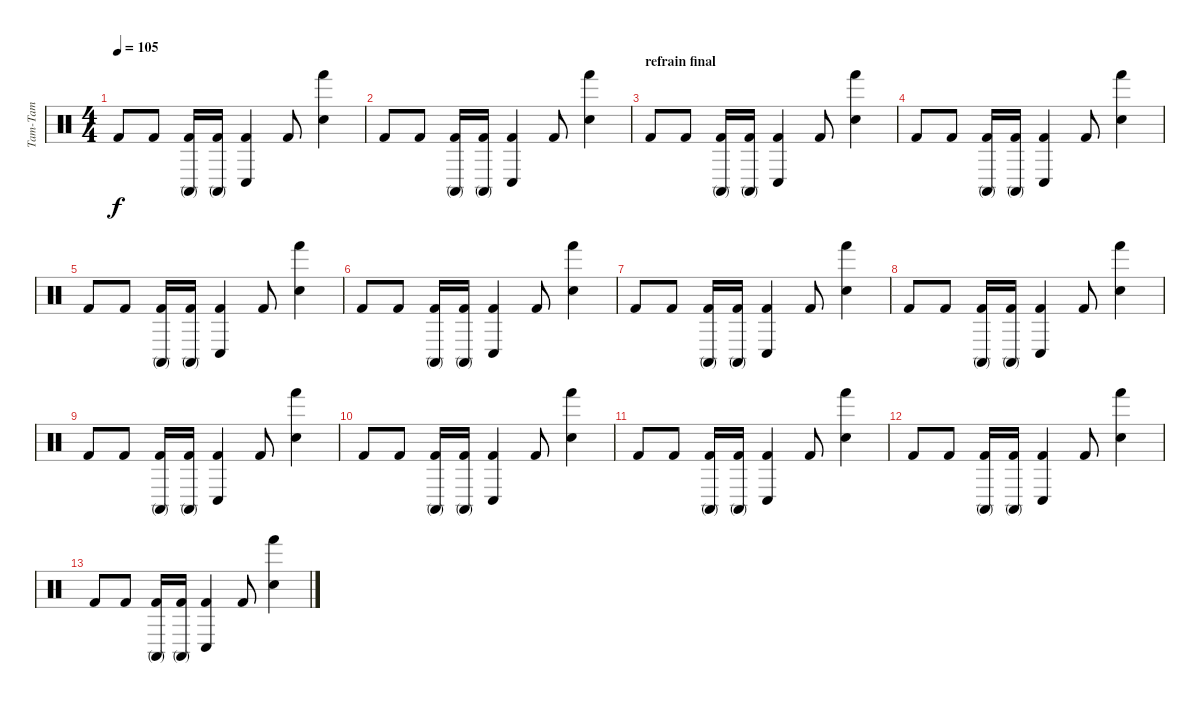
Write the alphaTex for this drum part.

\track ("Tam-Tam" "Tam-Tam") {instrument percussion}
\staff {score}
\articulation defaults
\ts (4 4)
\tempo 105
\clef neutral
\ks c "Kick (hit) 2".8{dy f} "Kick (hit) 2".8
("Conga high (mute)" "Kick (hit) 2").16 ("Conga high (mute)" "Kick (hit) 2").16 ("Conga low (hit)" "Kick (hit) 2").4 "Kick (hit) 2".8 ("Hand (hit)" "Electric Snare (hit)").4 |
"Kick (hit) 2".8 "Kick (hit) 2".8 ("Conga high (mute)" "Kick (hit) 2").16 ("Conga high (mute)" "Kick (hit) 2").16 ("Conga low (hit)" "Kick (hit) 2").4 "Kick (hit) 2".8 ("Hand (hit)" "Electric Snare (hit)").4 |
\section ("" "refrain final")
"Kick (hit) 2".8 "Kick (hit) 2".8 ("Conga high (mute)" "Kick (hit) 2").16 ("Conga high (mute)" "Kick (hit) 2").16 ("Conga low (hit)" "Kick (hit) 2").4 "Kick (hit) 2".8 ("Hand (hit)" "Electric Snare (hit)").4 |
"Kick (hit) 2".8 "Kick (hit) 2".8 ("Conga high (mute)" "Kick (hit) 2").16 ("Conga high (mute)" "Kick (hit) 2").16 ("Conga low (hit)" "Kick (hit) 2").4 "Kick (hit) 2".8 ("Hand (hit)" "Electric Snare (hit)").4 |
"Kick (hit) 2".8 "Kick (hit) 2".8 ("Conga high (mute)" "Kick (hit) 2").16 ("Conga high (mute)" "Kick (hit) 2").16 ("Conga low (hit)" "Kick (hit) 2").4 "Kick (hit) 2".8 ("Hand (hit)" "Electric Snare (hit)").4 |
"Kick (hit) 2".8 "Kick (hit) 2".8 ("Conga high (mute)" "Kick (hit) 2").16 ("Conga high (mute)" "Kick (hit) 2").16 ("Conga low (hit)" "Kick (hit) 2").4 "Kick (hit) 2".8 ("Hand (hit)" "Electric Snare (hit)").4 |
"Kick (hit) 2".8 "Kick (hit) 2".8 ("Conga high (mute)" "Kick (hit) 2").16 ("Conga high (mute)" "Kick (hit) 2").16 ("Conga low (hit)" "Kick (hit) 2").4 "Kick (hit) 2".8 ("Hand (hit)" "Electric Snare (hit)").4 |
"Kick (hit) 2".8 "Kick (hit) 2".8 ("Conga high (mute)" "Kick (hit) 2").16 ("Conga high (mute)" "Kick (hit) 2").16 ("Conga low (hit)" "Kick (hit) 2").4 "Kick (hit) 2".8 ("Hand (hit)" "Electric Snare (hit)").4 |
"Kick (hit) 2".8 "Kick (hit) 2".8 ("Conga high (mute)" "Kick (hit) 2").16 ("Conga high (mute)" "Kick (hit) 2").16 ("Conga low (hit)" "Kick (hit) 2").4 "Kick (hit) 2".8 ("Hand (hit)" "Electric Snare (hit)").4 |
"Kick (hit) 2".8 "Kick (hit) 2".8 ("Conga high (mute)" "Kick (hit) 2").16 ("Conga high (mute)" "Kick (hit) 2").16 ("Conga low (hit)" "Kick (hit) 2").4 "Kick (hit) 2".8 ("Hand (hit)" "Electric Snare (hit)").4 |
"Kick (hit) 2".8 "Kick (hit) 2".8 ("Conga high (mute)" "Kick (hit) 2").16 ("Conga high (mute)" "Kick (hit) 2").16 ("Conga low (hit)" "Kick (hit) 2").4 "Kick (hit) 2".8 ("Hand (hit)" "Electric Snare (hit)").4 |
"Kick (hit) 2".8 "Kick (hit) 2".8 ("Conga high (mute)" "Kick (hit) 2").16 ("Conga high (mute)" "Kick (hit) 2").16 ("Conga low (hit)" "Kick (hit) 2").4 "Kick (hit) 2".8 ("Hand (hit)" "Electric Snare (hit)").4 |
"Kick (hit) 2".8{volume 0} "Kick (hit) 2".8 ("Conga high (mute)" "Kick (hit) 2").16 ("Conga high (mute)" "Kick (hit) 2").16 ("Conga low (hit)" "Kick (hit) 2").4 "Kick (hit) 2".8 ("Hand (hit)" "Electric Snare (hit)").4
